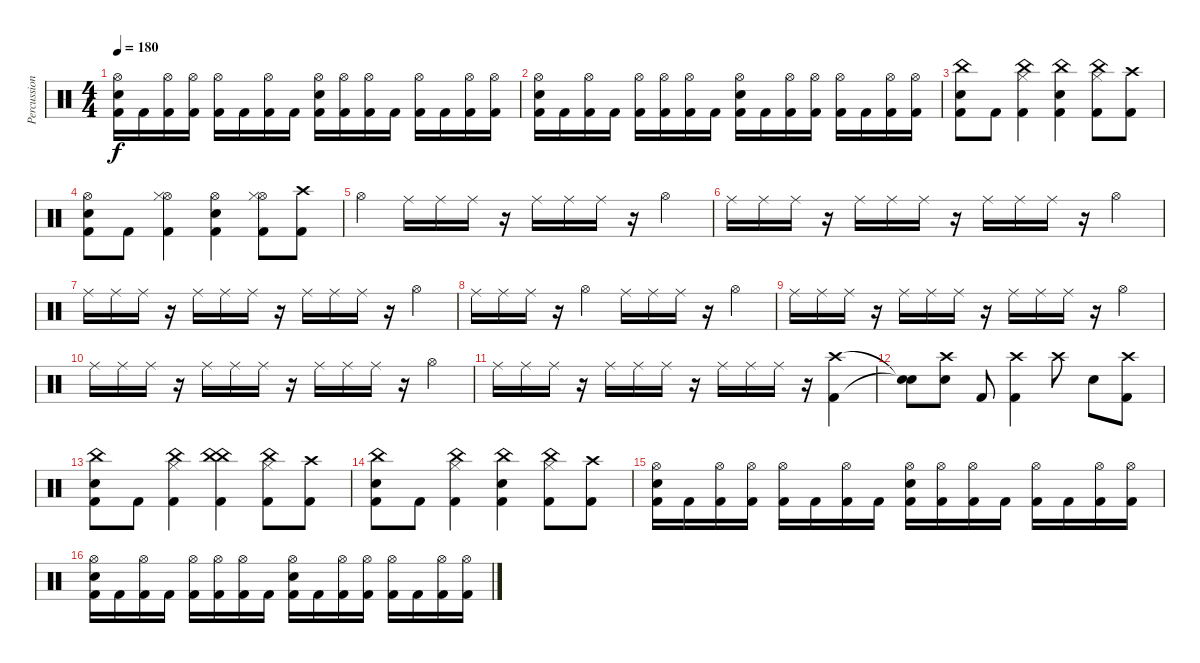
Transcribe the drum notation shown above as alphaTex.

\track ("Percussion" "Percussion") {instrument percussion}
\staff {score}
\articulation defaults
\ts (4 4)
\tempo 180
\clef neutral
\ks c
("Hi-Hat (open)" "Electric Snare (hit)" "Kick (hit) 2").16{dy f} "Kick (hit) 2".16 ("Hi-Hat (open)" "Kick (hit) 2").16 ("Hi-Hat (open)" "Kick (hit) 2").16 ("Hi-Hat (open)" "Kick (hit) 2").16 "Kick (hit) 2".16 ("Hi-Hat (open)" "Kick (hit) 2").16 "Kick (hit) 2".16 ("Hi-Hat (open)" "Electric Snare (hit)" "Kick (hit) 2").16 ("Hi-Hat (open)" "Kick (hit) 2").16 ("Hi-Hat (open)" "Kick (hit) 2").16 "Kick (hit) 2".16 ("Hi-Hat (open)" "Kick (hit) 2").16 "Kick (hit) 2".16 ("Hi-Hat (open)" "Kick (hit) 2").16 ("Hi-Hat (open)" "Kick (hit) 2").16 |
("Hi-Hat (open)" "Electric Snare (hit)" "Kick (hit) 2").16 "Kick (hit) 2".16 ("Hi-Hat (open)" "Kick (hit) 2").16 "Kick (hit) 2".16 ("Hi-Hat (open)" "Kick (hit) 2").16 ("Hi-Hat (open)" "Kick (hit) 2").16 ("Hi-Hat (open)" "Kick (hit) 2").16 "Kick (hit) 2".16 ("Hi-Hat (open)" "Electric Snare (hit)" "Kick (hit) 2").16 "Kick (hit) 2".16 ("Hi-Hat (open)" "Kick (hit) 2").16 ("Hi-Hat (open)" "Kick (hit) 2").16 ("Hi-Hat (open)" "Kick (hit) 2").16 "Kick (hit) 2".16 ("Hi-Hat (open)" "Kick (hit) 2").16 ("Hi-Hat (open)" "Kick (hit) 2").16 |
("China (hit)" "Electric Snare (hit)" "Kick (hit) 2").8 "Kick (hit) 2".8 ("China (hit)" "Hi-Hat (closed)" "Kick (hit) 2").4 ("China (hit)" "Electric Snare (hit)" "Kick (hit) 2").4 ("China (hit)" "Hi-Hat (closed)" "Kick (hit) 2").8 ("Crash high (hit)" "Kick (hit) 2").8 |
("Hi-Hat (open)" "Electric Snare (hit)" "Kick (hit) 2").8 "Kick (hit) 2".8 ("Hi-Hat (open)" "Hi-Hat (closed)" "Kick (hit) 2").4 ("Hi-Hat (open)" "Electric Snare (hit)" "Kick (hit) 2").4 ("Hi-Hat (open)" "Hi-Hat (closed)" "Kick (hit) 2").8 ("Crash high (hit)" "Kick (hit) 2").8 |
"Hi-Hat (open)".4 "Ride (middle)".16 "Ride (middle)".16 "Ride (middle)".16 r.16 "Ride (middle)".16 "Ride (middle)".16 "Ride (middle)".16 r.16 "Hi-Hat (open)".4 |
"Ride (middle)".16 "Ride (middle)".16 "Ride (middle)".16 r.16 "Ride (middle)".16 "Ride (middle)".16 "Ride (middle)".16 r.16 "Ride (middle)".16 "Ride (middle)".16 "Ride (middle)".16 r.16 "Hi-Hat (open)".4 |
"Ride (middle)".16 "Ride (middle)".16 "Ride (middle)".16 r.16 "Ride (middle)".16 "Ride (middle)".16 "Ride (middle)".16 r.16 "Ride (middle)".16 "Ride (middle)".16 "Ride (middle)".16 r.16 "Hi-Hat (open)".4 |
"Ride (middle)".16 "Ride (middle)".16 "Ride (middle)".16 r.16 "Hi-Hat (open)".4 "Ride (middle)".16 "Ride (middle)".16 "Ride (middle)".16 r.16 "Hi-Hat (open)".4 |
"Ride (middle)".16 "Ride (middle)".16 "Ride (middle)".16 r.16 "Ride (middle)".16 "Ride (middle)".16 "Ride (middle)".16 r.16 "Ride (middle)".16 "Ride (middle)".16 "Ride (middle)".16 r.16 "Hi-Hat (open)".4 |
"Ride (middle)".16 "Ride (middle)".16 "Ride (middle)".16 r.16 "Ride (middle)".16 "Ride (middle)".16 "Ride (middle)".16 r.16 "Ride (middle)".16 "Ride (middle)".16 "Ride (middle)".16 r.16 "Hi-Hat (open)".4 |
"Ride (middle)".16 "Ride (middle)".16 "Ride (middle)".16 r.16 "Ride (middle)".16 "Ride (middle)".16 "Ride (middle)".16 r.16 "Ride (middle)".16 "Ride (middle)".16 "Ride (middle)".16 r.16 ("Crash high (hit)" "Kick (hit) 2").4 |
("Snare (hit)"{t} "Snare (hit)"{t}).8 ("Crash high (hit)" "Electric Snare (hit)").8 "Kick (hit) 2".8 ("Crash high (hit)" "Kick (hit) 2").4 "Crash high (hit)".8 "Electric Snare (hit)".8 ("Crash high (hit)" "Kick (hit) 2").8 |
("China (hit)" "Electric Snare (hit)" "Kick (hit) 2").8 "Kick (hit) 2".8 ("China (hit)" "Hi-Hat (closed)" "Kick (hit) 2").4 ("China (hit)" "China (hit)" "Kick (hit) 2").4 ("China (hit)" "Hi-Hat (closed)" "Kick (hit) 2").8 ("Crash high (hit)" "Kick (hit) 2").8 |
("China (hit)" "Electric Snare (hit)" "Kick (hit) 2").8 "Kick (hit) 2".8 ("China (hit)" "Hi-Hat (closed)" "Kick (hit) 2").4 ("China (hit)" "Electric Snare (hit)" "Kick (hit) 2").4 ("China (hit)" "Hi-Hat (closed)" "Kick (hit) 2").8 ("Crash high (hit)" "Kick (hit) 2").8 |
("Hi-Hat (open)" "Electric Snare (hit)" "Kick (hit) 2").16 "Kick (hit) 2".16 ("Hi-Hat (open)" "Kick (hit) 2").16 ("Hi-Hat (open)" "Kick (hit) 2").16 ("Hi-Hat (open)" "Kick (hit) 2").16 "Kick (hit) 2".16 ("Hi-Hat (open)" "Kick (hit) 2").16 "Kick (hit) 2".16 ("Hi-Hat (open)" "Electric Snare (hit)" "Kick (hit) 2").16 ("Hi-Hat (open)" "Kick (hit) 2").16 ("Hi-Hat (open)" "Kick (hit) 2").16 "Kick (hit) 2".16 ("Hi-Hat (open)" "Kick (hit) 2").16 "Kick (hit) 2".16 ("Hi-Hat (open)" "Kick (hit) 2").16 ("Hi-Hat (open)" "Kick (hit) 2").16 |
("Hi-Hat (open)" "Electric Snare (hit)" "Kick (hit) 2").16 "Kick (hit) 2".16 ("Hi-Hat (open)" "Kick (hit) 2").16 "Kick (hit) 2".16 ("Hi-Hat (open)" "Kick (hit) 2").16 ("Hi-Hat (open)" "Kick (hit) 2").16 ("Hi-Hat (open)" "Kick (hit) 2").16 "Kick (hit) 2".16 ("Hi-Hat (open)" "Electric Snare (hit)" "Kick (hit) 2").16 "Kick (hit) 2".16 ("Hi-Hat (open)" "Kick (hit) 2").16 ("Hi-Hat (open)" "Kick (hit) 2").16 ("Hi-Hat (open)" "Kick (hit) 2").16 "Kick (hit) 2".16 ("Hi-Hat (open)" "Kick (hit) 2").16 ("Hi-Hat (open)" "Kick (hit) 2").16
